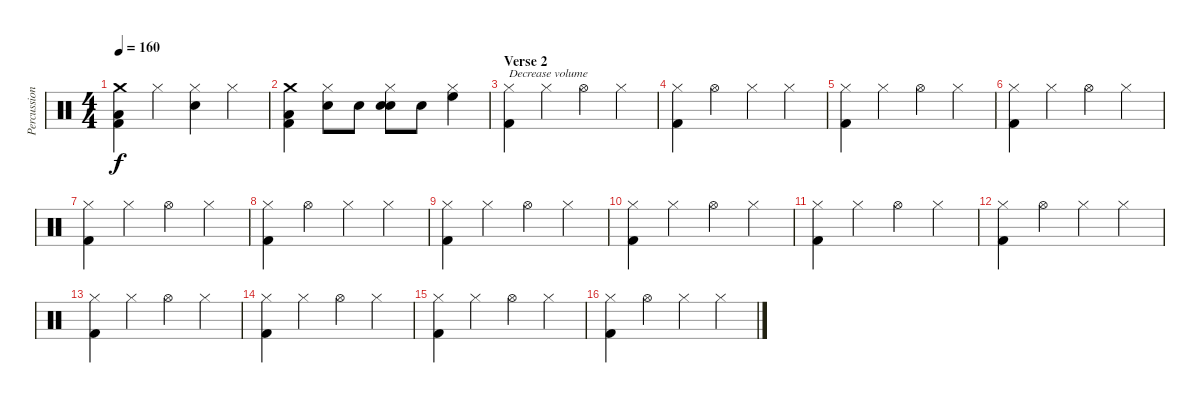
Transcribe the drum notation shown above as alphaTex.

\track ("Percussion" "Percussion") {instrument percussion}
\staff {score}
\articulation defaults
\ts (4 4)
\tempo 160
\clef neutral
\ks c
("Crash medium (hit)" "Low Tom (hit)" "Kick (hit) 2").4{dy f} "Hi-Hat (closed)".4 ("Hi-Hat (closed)" "Snare (hit) 2").4 "Hi-Hat (closed)".4 |
("Crash medium (hit)" "Low Tom (hit)" "Kick (hit) 2").4 ("Hi-Hat (closed)" "Electric Snare (hit)").8 "Electric Snare (hit)".8 ("Hi-Hat (closed)" "Snare (hit) 2" "Electric Snare (hit)").8 "Electric Snare (hit)".8 ("Hi-Hat (closed)" "High Floor Tom (hit)").4 |
\section ("" "Verse 2")
("Hi-Hat (closed)" "Kick (hit) 2").4{txt "Decrease volume" volume 10} "Hi-Hat (closed)".4 "Hi-Hat (open)".4 "Hi-Hat (closed)".4 |
("Hi-Hat (closed)" "Kick (hit) 2").4 "Hi-Hat (open)".4 "Hi-Hat (closed)".4 "Hi-Hat (closed)".4 |
("Hi-Hat (closed)" "Kick (hit) 2").4 "Hi-Hat (closed)".4 "Hi-Hat (open)".4 "Hi-Hat (closed)".4 |
("Hi-Hat (closed)" "Kick (hit) 2").4 "Hi-Hat (closed)".4 "Hi-Hat (open)".4 "Hi-Hat (closed)".4 |
("Hi-Hat (closed)" "Kick (hit) 2").4 "Hi-Hat (closed)".4 "Hi-Hat (open)".4 "Hi-Hat (closed)".4 |
("Hi-Hat (closed)" "Kick (hit) 2").4 "Hi-Hat (open)".4 "Hi-Hat (closed)".4 "Hi-Hat (closed)".4 |
("Hi-Hat (closed)" "Kick (hit) 2").4 "Hi-Hat (closed)".4 "Hi-Hat (open)".4 "Hi-Hat (closed)".4 |
("Hi-Hat (closed)" "Kick (hit) 2").4 "Hi-Hat (closed)".4 "Hi-Hat (open)".4 "Hi-Hat (closed)".4 |
("Hi-Hat (closed)" "Kick (hit) 2").4 "Hi-Hat (closed)".4 "Hi-Hat (open)".4 "Hi-Hat (closed)".4 |
("Hi-Hat (closed)" "Kick (hit) 2").4 "Hi-Hat (open)".4 "Hi-Hat (closed)".4 "Hi-Hat (closed)".4 |
("Hi-Hat (closed)" "Kick (hit) 2").4 "Hi-Hat (closed)".4 "Hi-Hat (open)".4 "Hi-Hat (closed)".4 |
("Hi-Hat (closed)" "Kick (hit) 2").4 "Hi-Hat (closed)".4 "Hi-Hat (open)".4 "Hi-Hat (closed)".4 |
("Hi-Hat (closed)" "Kick (hit) 2").4 "Hi-Hat (closed)".4 "Hi-Hat (open)".4 "Hi-Hat (closed)".4 |
("Hi-Hat (closed)" "Kick (hit) 2").4 "Hi-Hat (open)".4 "Hi-Hat (closed)".4 "Hi-Hat (closed)".4
